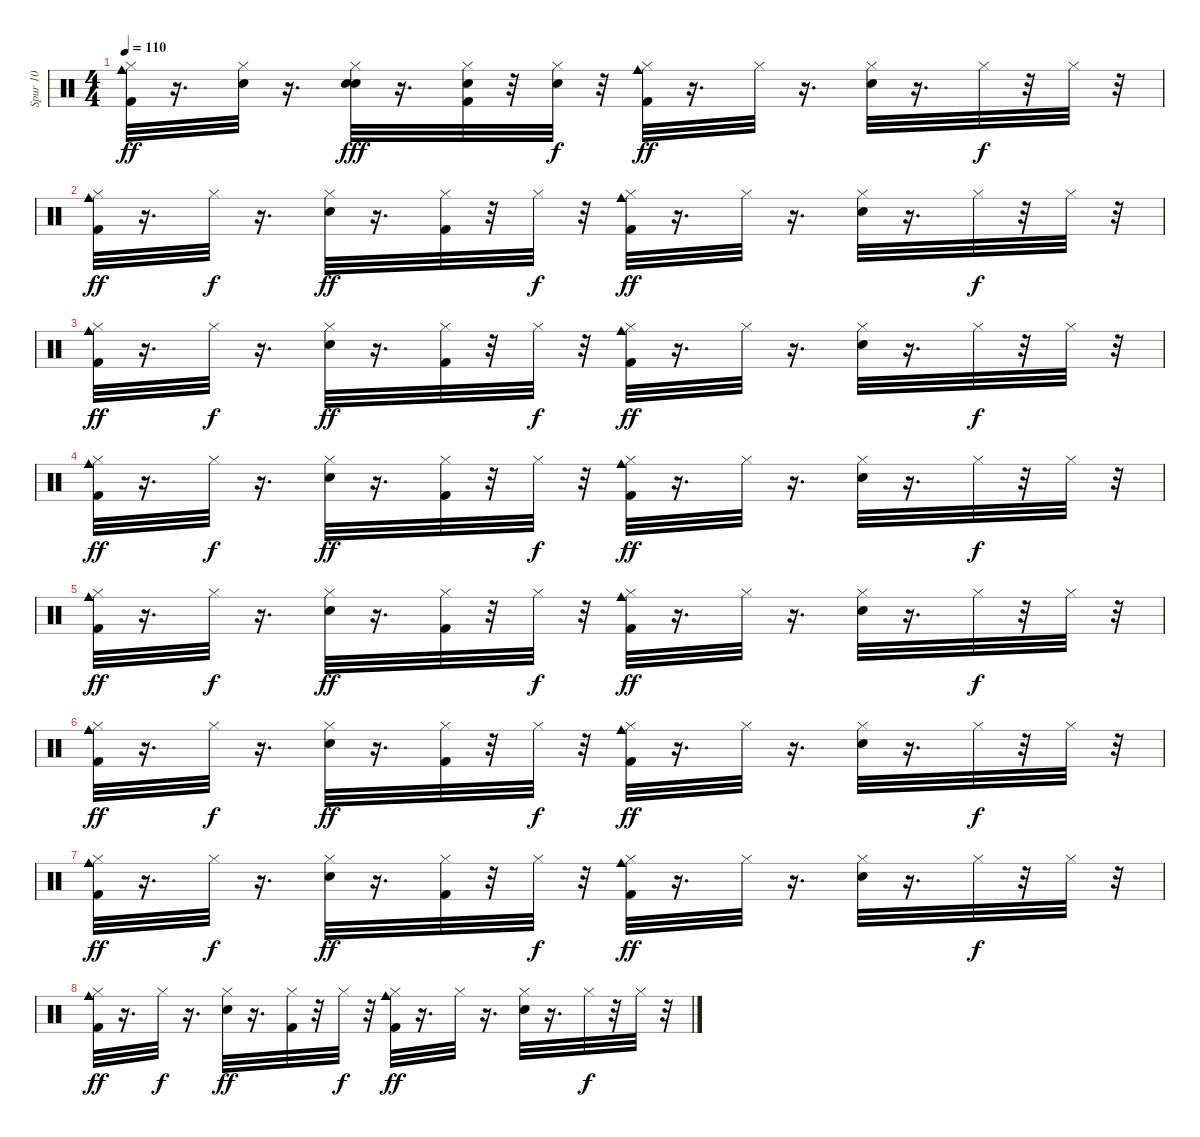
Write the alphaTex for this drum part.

\track ("Spur 10" "Spur 10") {instrument percussion}
\staff {score}
\articulation defaults
\ts (4 4)
\tempo 110
\clef neutral
\ks c
("Kick (hit) 2" "Cowbell medium (hit)" "Hi-Hat (closed)").32{dy ff} r.16{d} ("Hi-Hat (closed)" "Hand Clap (hit)").32 r.16{d} ("Snare (hit) 2" "Hi-Hat (closed)" "Hand Clap (hit)").32{dy fff} r.16{d} ("Kick (hit) 2" "Hi-Hat (closed)" "Hand Clap (hit)").32 r.32 ("Hi-Hat (closed)" "Hand Clap (hit)").32{dy f} r.32 ("Kick (hit) 2" "Cowbell medium (hit)" "Hi-Hat (closed)").32{dy ff} r.16{d} "Hi-Hat (closed)".32 r.16{d} ("Snare (hit) 2" "Hi-Hat (closed)").32 r.16{d} "Hi-Hat (closed)".32{dy f} r.32 "Hi-Hat (closed)".32 r.32 |
("Kick (hit) 2" "Cowbell medium (hit)" "Hi-Hat (closed)").32{dy ff} r.16{d} "Hi-Hat (closed)".32{dy f} r.16{d} ("Snare (hit) 2" "Hi-Hat (closed)").32{dy ff} r.16{d} ("Kick (hit) 2" "Hi-Hat (closed)").32 r.32 "Hi-Hat (closed)".32{dy f} r.32 ("Kick (hit) 2" "Cowbell medium (hit)" "Hi-Hat (closed)").32{dy ff} r.16{d} "Hi-Hat (closed)".32 r.16{d} ("Snare (hit) 2" "Hi-Hat (closed)").32 r.16{d} "Hi-Hat (closed)".32{dy f} r.32 "Hi-Hat (closed)".32 r.32 |
("Kick (hit) 2" "Cowbell medium (hit)" "Hi-Hat (closed)").32{dy ff} r.16{d} "Hi-Hat (closed)".32{dy f} r.16{d} ("Snare (hit) 2" "Hi-Hat (closed)").32{dy ff} r.16{d} ("Kick (hit) 2" "Hi-Hat (closed)").32 r.32 "Hi-Hat (closed)".32{dy f} r.32 ("Kick (hit) 2" "Cowbell medium (hit)" "Hi-Hat (closed)").32{dy ff} r.16{d} "Hi-Hat (closed)".32 r.16{d} ("Snare (hit) 2" "Hi-Hat (closed)").32 r.16{d} "Hi-Hat (closed)".32{dy f} r.32 "Hi-Hat (closed)".32 r.32 |
("Kick (hit) 2" "Cowbell medium (hit)" "Hi-Hat (closed)").32{dy ff} r.16{d} "Hi-Hat (closed)".32{dy f} r.16{d} ("Snare (hit) 2" "Hi-Hat (closed)").32{dy ff} r.16{d} ("Kick (hit) 2" "Hi-Hat (closed)").32 r.32 "Hi-Hat (closed)".32{dy f} r.32 ("Kick (hit) 2" "Cowbell medium (hit)" "Hi-Hat (closed)").32{dy ff} r.16{d} "Hi-Hat (closed)".32 r.16{d} ("Snare (hit) 2" "Hi-Hat (closed)").32 r.16{d} "Hi-Hat (closed)".32{dy f} r.32 "Hi-Hat (closed)".32 r.32 |
("Kick (hit) 2" "Cowbell medium (hit)" "Hi-Hat (closed)").32{dy ff} r.16{d} "Hi-Hat (closed)".32{dy f} r.16{d} ("Snare (hit) 2" "Hi-Hat (closed)").32{dy ff} r.16{d} ("Kick (hit) 2" "Hi-Hat (closed)").32 r.32 "Hi-Hat (closed)".32{dy f} r.32 ("Kick (hit) 2" "Cowbell medium (hit)" "Hi-Hat (closed)").32{dy ff} r.16{d} "Hi-Hat (closed)".32 r.16{d} ("Snare (hit) 2" "Hi-Hat (closed)").32 r.16{d} "Hi-Hat (closed)".32{dy f} r.32 "Hi-Hat (closed)".32 r.32 |
("Kick (hit) 2" "Cowbell medium (hit)" "Hi-Hat (closed)").32{dy ff} r.16{d} "Hi-Hat (closed)".32{dy f} r.16{d} ("Snare (hit) 2" "Hi-Hat (closed)").32{dy ff} r.16{d} ("Kick (hit) 2" "Hi-Hat (closed)").32 r.32 "Hi-Hat (closed)".32{dy f} r.32 ("Kick (hit) 2" "Cowbell medium (hit)" "Hi-Hat (closed)").32{dy ff} r.16{d} "Hi-Hat (closed)".32 r.16{d} ("Snare (hit) 2" "Hi-Hat (closed)").32 r.16{d} "Hi-Hat (closed)".32{dy f} r.32 "Hi-Hat (closed)".32 r.32 |
("Kick (hit) 2" "Cowbell medium (hit)" "Hi-Hat (closed)").32{dy ff} r.16{d} "Hi-Hat (closed)".32{dy f} r.16{d} ("Snare (hit) 2" "Hi-Hat (closed)").32{dy ff} r.16{d} ("Kick (hit) 2" "Hi-Hat (closed)").32 r.32 "Hi-Hat (closed)".32{dy f} r.32 ("Kick (hit) 2" "Cowbell medium (hit)" "Hi-Hat (closed)").32{dy ff} r.16{d} "Hi-Hat (closed)".32 r.16{d} ("Snare (hit) 2" "Hi-Hat (closed)").32 r.16{d} "Hi-Hat (closed)".32{dy f} r.32 "Hi-Hat (closed)".32 r.32 |
("Kick (hit) 2" "Cowbell medium (hit)" "Hi-Hat (closed)").32{dy ff} r.16{d} "Hi-Hat (closed)".32{dy f} r.16{d} ("Snare (hit) 2" "Hi-Hat (closed)").32{dy ff} r.16{d} ("Kick (hit) 2" "Hi-Hat (closed)").32 r.32 "Hi-Hat (closed)".32{dy f} r.32 ("Kick (hit) 2" "Cowbell medium (hit)" "Hi-Hat (closed)").32{dy ff} r.16{d} "Hi-Hat (closed)".32 r.16{d} ("Snare (hit) 2" "Hi-Hat (closed)").32 r.16{d} "Hi-Hat (closed)".32{dy f} r.32 "Hi-Hat (closed)".32 r.32
